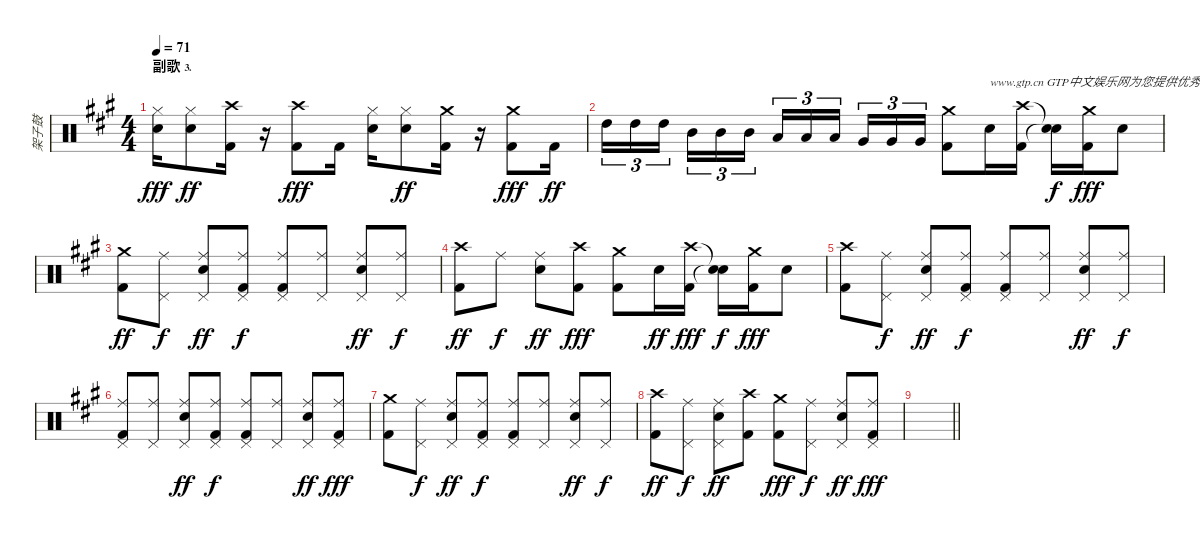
\track ("架子鼓" "架子鼓") {instrument percussion}
\staff {score}
\articulation defaults
\ts (4 4)
\section ("" "副歌⒊")
\tempo 71
\clef neutral
\ks a
("Hi-Hat (closed)" "Electric Snare (hit)").16{dy fff} ("Hi-Hat (closed)" "Electric Snare (hit)").8{dy ff} ("Crash high (hit)" "Kick (hit) 2").16 r.16 ("Crash high (hit)" "Kick (hit) 2").8{dy fff} "Kick (hit) 2".16 ("Hi-Hat (closed)" "Electric Snare (hit)").16 ("Hi-Hat (closed)" "Electric Snare (hit)").8{dy ff} ("Crash medium (hit)" "Kick (hit) 2").16 r.16 ("Crash medium (hit)" "Kick (hit) 2").8{dy fff} "Kick (hit) 2".16{dy ff} |
"High Tom (hit)".16{tu (3 2)} "High Tom (hit)".16{tu (3 2)} "High Tom (hit)".16{tu (3 2) beam splitsecondary} "Mid Tom (hit)".16{tu (3 2)} "Mid Tom (hit)".16{tu (3 2)} "Mid Tom (hit)".16{tu (3 2)} "Low Tom (hit)".16{tu (3 2)} "Low Tom (hit)".16{tu (3 2)} "Low Tom (hit)".16{tu (3 2) beam splitsecondary} "Very Low Tom (hit)".16{tu (3 2)} "Very Low Tom (hit)".16{tu (3 2)} "Very Low Tom (hit)".16{tu (3 2)} ("Crash medium (hit)" "Kick (hit) 2").8 "Electric Snare (hit)".16{txt "www.gtp.cn GTP中文娱乐网为您提供优秀的谱子"} ("Crash high (hit)" "Kick (hit) 2").16 ("Snare (hit)"{t} "Snare (hit)"{t}).16{dy f} ("Crash medium (hit)" "Kick (hit) 2").16{dy fff} "Electric Snare (hit)".8 |
("Crash medium (hit)" "Kick (hit) 2").8{dy ff} ("Ride (middle)" "Pedal Hi-Hat (hit)").8{dy f} ("Ride (middle)" "Electric Snare (hit)" "Pedal Hi-Hat (hit)").8{dy ff} ("Ride (middle)" "Pedal Hi-Hat (hit)" "Kick (hit) 2").8{dy f} ("Ride (middle)" "Pedal Hi-Hat (hit)" "Kick (hit) 2").8 ("Ride (middle)" "Pedal Hi-Hat (hit)").8 ("Ride (middle)" "Electric Snare (hit)" "Pedal Hi-Hat (hit)").8{dy ff} ("Ride (middle)" "Pedal Hi-Hat (hit)").8{dy f} |
("Crash high (hit)" "Kick (hit) 2").8{dy ff} "Ride (middle)".8{dy f} ("Ride (middle)" "Electric Snare (hit)").8{dy ff} ("Crash high (hit)" "Kick (hit) 2").8{dy fff} ("Crash medium (hit)" "Kick (hit) 2").8 "Electric Snare (hit)".16{dy ff} ("Crash high (hit)" "Kick (hit) 2").16{dy fff} ("Snare (hit)"{t} "Snare (hit)"{t}).16{dy f} ("Crash medium (hit)" "Kick (hit) 2").16{dy fff} "Electric Snare (hit)".8 |
("Crash high (hit)" "Kick (hit) 2").8 ("Ride (middle)" "Pedal Hi-Hat (hit)").8{dy f} ("Ride (middle)" "Electric Snare (hit)" "Pedal Hi-Hat (hit)").8{dy ff} ("Ride (middle)" "Pedal Hi-Hat (hit)" "Kick (hit) 2").8{dy f} ("Ride (middle)" "Pedal Hi-Hat (hit)" "Kick (hit) 2").8 ("Ride (middle)" "Pedal Hi-Hat (hit)").8 ("Ride (middle)" "Electric Snare (hit)" "Pedal Hi-Hat (hit)").8{dy ff} ("Ride (middle)" "Pedal Hi-Hat (hit)").8{dy f} |
("Ride (middle)" "Pedal Hi-Hat (hit)" "Kick (hit) 2").8 ("Ride (middle)" "Pedal Hi-Hat (hit)").8 ("Ride (middle)" "Electric Snare (hit)" "Pedal Hi-Hat (hit)").8{dy ff} ("Ride (middle)" "Pedal Hi-Hat (hit)" "Kick (hit) 2").8{dy f} ("Ride (middle)" "Pedal Hi-Hat (hit)" "Kick (hit) 2").8 ("Ride (middle)" "Pedal Hi-Hat (hit)").8 ("Ride (middle)" "Electric Snare (hit)" "Pedal Hi-Hat (hit)").8{dy ff} ("Ride (middle)" "Pedal Hi-Hat (hit)" "Kick (hit) 2").8{dy fff} |
("Crash medium (hit)" "Kick (hit) 2").8 ("Ride (middle)" "Pedal Hi-Hat (hit)").8{dy f} ("Ride (middle)" "Electric Snare (hit)" "Pedal Hi-Hat (hit)").8{dy ff} ("Ride (middle)" "Pedal Hi-Hat (hit)" "Kick (hit) 2").8{dy f} ("Ride (middle)" "Pedal Hi-Hat (hit)" "Kick (hit) 2").8 ("Ride (middle)" "Pedal Hi-Hat (hit)").8 ("Ride (middle)" "Electric Snare (hit)" "Pedal Hi-Hat (hit)").8{dy ff} ("Ride (middle)" "Pedal Hi-Hat (hit)").8{dy f} |
("Crash high (hit)" "Kick (hit) 2").8{dy ff} ("Ride (middle)" "Pedal Hi-Hat (hit)").8{dy f} ("Ride (middle)" "Electric Snare (hit)" "Pedal Hi-Hat (hit)").8{dy ff} ("Crash high (hit)" "Kick (hit) 2").8 ("Crash medium (hit)" "Kick (hit) 2").8{dy fff} ("Ride (middle)" "Pedal Hi-Hat (hit)").8{dy f} ("Ride (middle)" "Electric Snare (hit)" "Pedal Hi-Hat (hit)").8{dy ff} ("Ride (middle)" "Pedal Hi-Hat (hit)" "Kick (hit) 2").8{dy fff} |
\barLineRight lightlight
